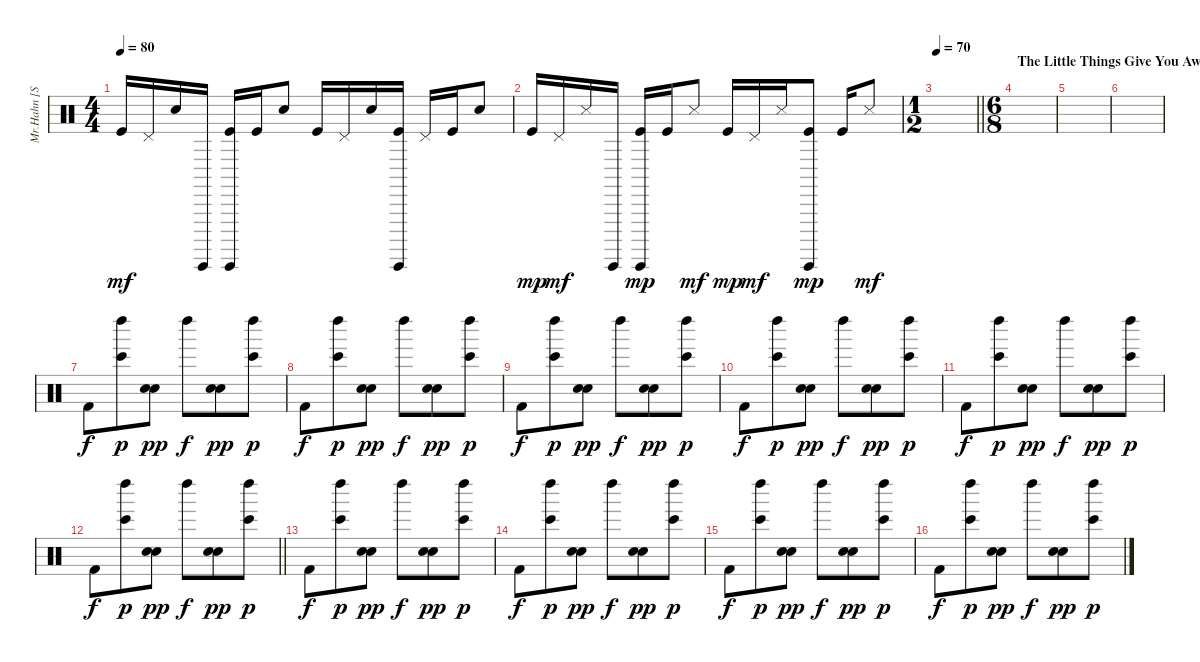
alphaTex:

\track ("Mr.Hahn [Sampler 4 Digital Drums]" "Mr.Hahn [S") {instrument percussion}
\staff {score}
\articulation defaults
\ts (4 4)
\tempo 80
\clef neutral
\ks c "Kick (hit)".16{dy mf} "Pedal Hi-Hat (hit)".16 "Snare (hit) 2".16 "Guiro (hit)".16
("Guiro (hit)" "Kick (hit)").16 "Kick (hit)".16 "Snare (hit) 2".8 "Kick (hit)".16 "Pedal Hi-Hat (hit)".16 "Snare (hit) 2".16 ("Guiro (hit)" "Kick (hit)").16 "Pedal Hi-Hat (hit)".16 "Kick (hit)".16 "Snare (hit) 2".8 |
"Kick (hit)".16{dy mp} "Pedal Hi-Hat (hit)".16{dy mf} "Metronome (hit)".16 "Guiro (hit)".16 ("Guiro (hit)" "Kick (hit)").16{dy mp} "Kick (hit)".16 "Metronome (hit)".8{dy mf} "Kick (hit)".16{dy mp} "Pedal Hi-Hat (hit)".16{dy mf} "Metronome (hit)".16 ("Guiro (hit)" "Kick (hit)").8{dy mp} "Kick (hit)".16 "Metronome (hit)".8{dy mf} |
\ts (1 2)
\tempo 70
\barLineRight lightlight
|
\ts (6 8)
\section ("" "The Little Things Give You Away")
|
|
|
"Kick (hit) 2".8{dy f} ("Left Maraca (hit)" "Bongo High (hit)").8{dy p} ("Snare (hit) 2" "Electric Snare (hit)").8{dy pp} "Left Maraca (hit)".8{dy f} ("Snare (hit) 2" "Electric Snare (hit)").8{dy pp} ("Left Maraca (hit)" "Bongo High (hit)").8{dy p} |
"Kick (hit) 2".8{dy f} ("Left Maraca (hit)" "Bongo High (hit)").8{dy p} ("Snare (hit) 2" "Electric Snare (hit)").8{dy pp} "Left Maraca (hit)".8{dy f} ("Snare (hit) 2" "Electric Snare (hit)").8{dy pp} ("Left Maraca (hit)" "Bongo High (hit)").8{dy p} |
"Kick (hit) 2".8{dy f} ("Left Maraca (hit)" "Bongo High (hit)").8{dy p} ("Snare (hit) 2" "Electric Snare (hit)").8{dy pp} "Left Maraca (hit)".8{dy f} ("Snare (hit) 2" "Electric Snare (hit)").8{dy pp} ("Left Maraca (hit)" "Bongo High (hit)").8{dy p} |
"Kick (hit) 2".8{dy f} ("Left Maraca (hit)" "Bongo High (hit)").8{dy p} ("Snare (hit) 2" "Electric Snare (hit)").8{dy pp} "Left Maraca (hit)".8{dy f} ("Snare (hit) 2" "Electric Snare (hit)").8{dy pp} ("Left Maraca (hit)" "Bongo High (hit)").8{dy p} |
"Kick (hit) 2".8{dy f} ("Left Maraca (hit)" "Bongo High (hit)").8{dy p} ("Snare (hit) 2" "Electric Snare (hit)").8{dy pp} "Left Maraca (hit)".8{dy f} ("Snare (hit) 2" "Electric Snare (hit)").8{dy pp} ("Left Maraca (hit)" "Bongo High (hit)").8{dy p} |
\barLineRight lightlight "Kick (hit) 2".8{dy f}
("Left Maraca (hit)" "Bongo High (hit)").8{dy p} ("Snare (hit) 2" "Electric Snare (hit)").8{dy pp} "Left Maraca (hit)".8{dy f} ("Snare (hit) 2" "Electric Snare (hit)").8{dy pp} ("Left Maraca (hit)" "Bongo High (hit)").8{dy p} |
"Kick (hit) 2".8{dy f} ("Left Maraca (hit)" "Bongo High (hit)").8{dy p} ("Snare (hit) 2" "Electric Snare (hit)").8{dy pp} "Left Maraca (hit)".8{dy f} ("Snare (hit) 2" "Electric Snare (hit)").8{dy pp} ("Left Maraca (hit)" "Bongo High (hit)").8{dy p} |
"Kick (hit) 2".8{dy f} ("Left Maraca (hit)" "Bongo High (hit)").8{dy p} ("Snare (hit) 2" "Electric Snare (hit)").8{dy pp} "Left Maraca (hit)".8{dy f} ("Snare (hit) 2" "Electric Snare (hit)").8{dy pp} ("Left Maraca (hit)" "Bongo High (hit)").8{dy p} |
"Kick (hit) 2".8{dy f} ("Left Maraca (hit)" "Bongo High (hit)").8{dy p} ("Snare (hit) 2" "Electric Snare (hit)").8{dy pp} "Left Maraca (hit)".8{dy f} ("Snare (hit) 2" "Electric Snare (hit)").8{dy pp} ("Left Maraca (hit)" "Bongo High (hit)").8{dy p} |
"Kick (hit) 2".8{dy f} ("Left Maraca (hit)" "Bongo High (hit)").8{dy p} ("Snare (hit) 2" "Electric Snare (hit)").8{dy pp} "Left Maraca (hit)".8{dy f} ("Snare (hit) 2" "Electric Snare (hit)").8{dy pp} ("Left Maraca (hit)" "Bongo High (hit)").8{dy p}
